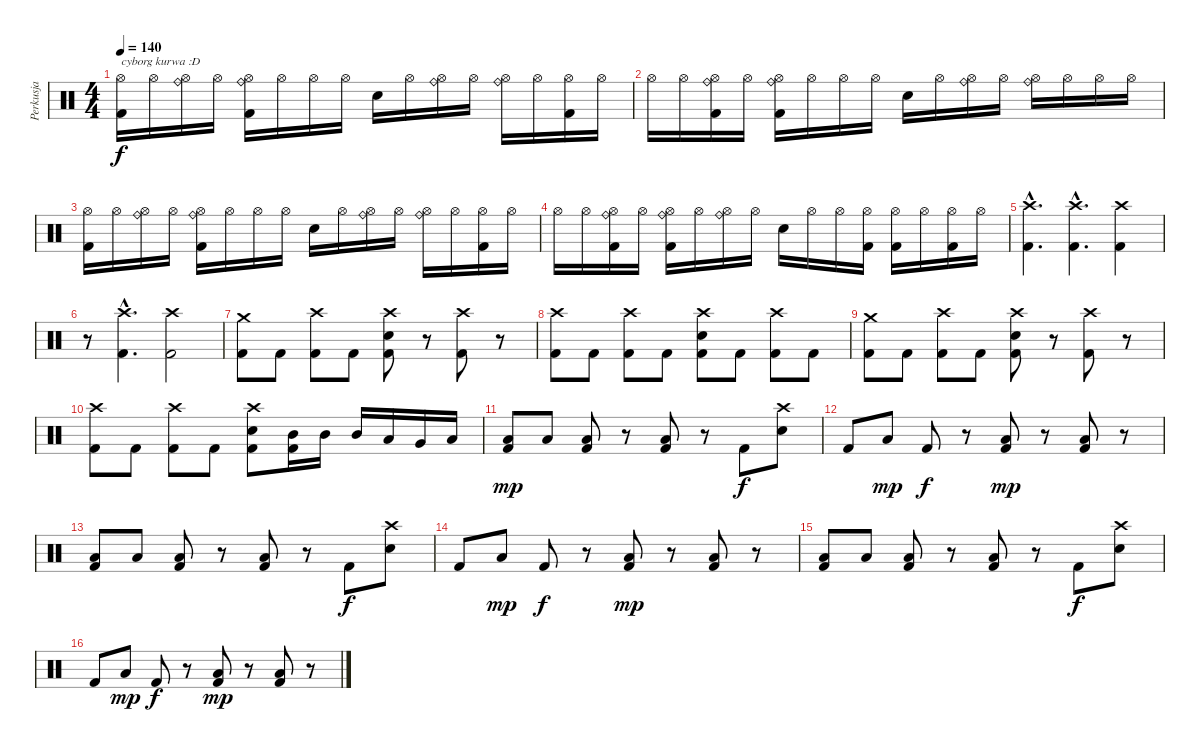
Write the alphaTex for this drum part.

\track ("Perkusja" "Perkusja") {instrument percussion}
\staff {score}
\articulation defaults
\ts (4 4)
\tempo 140
\clef neutral
\ks c
("Hi-Hat (open)" "Kick (hit) 2").16{txt "cyborg kurwa :D" dy f} "Hi-Hat (open)".16 ("Hi-Hat (open)" "Ride (bell)").16 "Hi-Hat (open)".16 ("Hi-Hat (open)" "Ride (bell)" "Kick (hit) 2").16 "Hi-Hat (open)".16 "Hi-Hat (open)".16 "Hi-Hat (open)".16 "Electric Snare (hit)".16 "Hi-Hat (open)".16 ("Hi-Hat (open)" "Ride (bell)").16 "Hi-Hat (open)".16 ("Hi-Hat (open)" "Ride (bell)").16 "Hi-Hat (open)".16 ("Hi-Hat (open)" "Kick (hit) 2").16 "Hi-Hat (open)".16 |
"Hi-Hat (open)".16 "Hi-Hat (open)".16 ("Hi-Hat (open)" "Ride (bell)" "Kick (hit) 2").16 "Hi-Hat (open)".16 ("Hi-Hat (open)" "Ride (bell)" "Kick (hit) 2").16 "Hi-Hat (open)".16 "Hi-Hat (open)".16 "Hi-Hat (open)".16 "Electric Snare (hit)".16 "Hi-Hat (open)".16 ("Hi-Hat (open)" "Ride (bell)").16 "Hi-Hat (open)".16 ("Hi-Hat (open)" "Ride (bell)").16 "Hi-Hat (open)".16 "Hi-Hat (open)".16 "Hi-Hat (open)".16 |
("Hi-Hat (open)" "Kick (hit) 2").16{txt " "} "Hi-Hat (open)".16 ("Hi-Hat (open)" "Ride (bell)").16 "Hi-Hat (open)".16 ("Hi-Hat (open)" "Ride (bell)" "Kick (hit) 2").16 "Hi-Hat (open)".16 "Hi-Hat (open)".16 "Hi-Hat (open)".16 "Electric Snare (hit)".16 "Hi-Hat (open)".16 ("Hi-Hat (open)" "Ride (bell)").16 "Hi-Hat (open)".16 ("Hi-Hat (open)" "Ride (bell)").16 "Hi-Hat (open)".16 ("Hi-Hat (open)" "Kick (hit) 2").16 "Hi-Hat (open)".16 |
"Hi-Hat (open)".16 "Hi-Hat (open)".16 ("Hi-Hat (open)" "Ride (bell)" "Kick (hit) 2").16 "Hi-Hat (open)".16 ("Hi-Hat (open)" "Ride (bell)" "Kick (hit) 2").16 "Hi-Hat (open)".16 ("Hi-Hat (open)" "Ride (bell)").16 "Hi-Hat (open)".16 "Electric Snare (hit)".16 "Hi-Hat (open)".16 "Hi-Hat (open)".16 ("Hi-Hat (open)" "Kick (hit) 2").16 ("Hi-Hat (open)" "Kick (hit) 2").16 "Hi-Hat (open)".16 ("Hi-Hat (open)" "Kick (hit) 2").16 "Hi-Hat (open)".16 |
("Crash high (hit)"{hac} "Kick (hit) 2"{hac}).4{d} ("Crash high (hit)"{hac} "Kick (hit) 2"{hac}).4{d} ("Crash high (hit)" "Kick (hit) 2").4 |
r.8 ("Crash high (hit)"{hac} "Kick (hit) 2"{hac}).4{d} ("Crash high (hit)" "Kick (hit) 2").2 |
("Crash medium (hit)" "Kick (hit) 2").8 "Kick (hit) 2".8 ("Crash high (hit)" "Kick (hit) 2").8 "Kick (hit) 2".8 ("Crash high (hit)" "Electric Snare (hit)" "Kick (hit) 2").8 r.8 ("Crash high (hit)" "Kick (hit) 2").8 r.8 |
("Crash high (hit)" "Kick (hit) 2").8 "Kick (hit) 2".8 ("Crash high (hit)" "Kick (hit) 2").8 "Kick (hit) 2".8 ("Crash high (hit)" "Electric Snare (hit)" "Kick (hit) 2").8 "Kick (hit) 2".8 ("Crash high (hit)" "Kick (hit) 2").8 "Kick (hit) 2".8 |
("Crash medium (hit)" "Kick (hit) 2").8 "Kick (hit) 2".8 ("Crash high (hit)" "Kick (hit) 2").8 "Kick (hit) 2".8 ("Crash high (hit)" "Electric Snare (hit)" "Kick (hit) 2").8 r.8 ("Crash high (hit)" "Kick (hit) 2").8 r.8 |
("Crash high (hit)" "Kick (hit) 2").8 "Kick (hit) 2".8 ("Crash high (hit)" "Kick (hit) 2").8 "Kick (hit) 2".8 ("Crash high (hit)" "Electric Snare (hit)" "Kick (hit) 2").8 ("Mid Tom (hit)" "Kick (hit) 2").16 "Mid Tom (hit)".16 "Mid Tom (hit)".16 "Low Tom (hit)".16 "Very Low Tom (hit)".16 "Low Floor Tom (hit)".16 |
("Low Floor Tom (hit)" "Kick (hit) 2").8{dy mp} "Low Floor Tom (hit)".8 ("Low Floor Tom (hit)" "Kick (hit) 2").8 r.8 ("Low Floor Tom (hit)" "Kick (hit) 2").8 r.8 "Kick (hit) 2".8{dy f} ("Crash high (hit)" "Electric Snare (hit)").8 |
"Kick (hit) 2".8 "Low Floor Tom (hit)".8{dy mp} "Kick (hit) 2".8{dy f} r.8 ("Low Floor Tom (hit)" "Kick (hit) 2").8{dy mp} r.8 ("Low Floor Tom (hit)" "Kick (hit) 2").8 r.8 |
("Low Floor Tom (hit)" "Kick (hit) 2").8 "Low Floor Tom (hit)".8 ("Low Floor Tom (hit)" "Kick (hit) 2").8 r.8 ("Low Floor Tom (hit)" "Kick (hit) 2").8 r.8 "Kick (hit) 2".8{dy f} ("Crash high (hit)" "Electric Snare (hit)").8 |
"Kick (hit) 2".8 "Low Floor Tom (hit)".8{dy mp} "Kick (hit) 2".8{dy f} r.8 ("Low Floor Tom (hit)" "Kick (hit) 2").8{dy mp} r.8 ("Low Floor Tom (hit)" "Kick (hit) 2").8 r.8 |
("Low Floor Tom (hit)" "Kick (hit) 2").8 "Low Floor Tom (hit)".8 ("Low Floor Tom (hit)" "Kick (hit) 2").8 r.8 ("Low Floor Tom (hit)" "Kick (hit) 2").8 r.8 "Kick (hit) 2".8{dy f} ("Crash high (hit)" "Electric Snare (hit)").8 |
"Kick (hit) 2".8 "Low Floor Tom (hit)".8{dy mp} "Kick (hit) 2".8{dy f} r.8 ("Low Floor Tom (hit)" "Kick (hit) 2").8{dy mp} r.8 ("Low Floor Tom (hit)" "Kick (hit) 2").8 r.8
